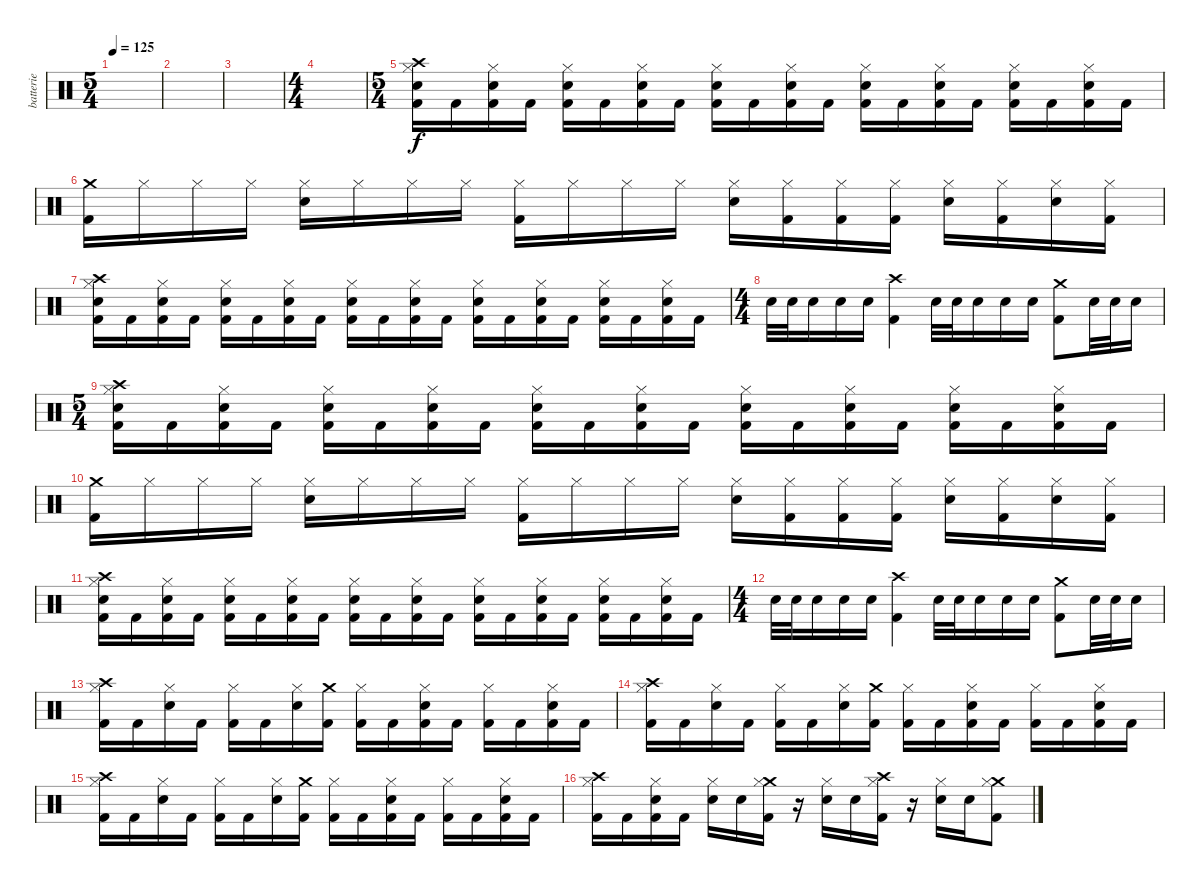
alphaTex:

\track ("batterie" "batterie") {instrument percussion}
\staff {score}
\articulation defaults
\ts (5 4)
\tempo 125
\clef neutral
\ks c
|
|
|
\ts (4 4)
|
\ts (5 4)
("Crash high (hit)" "Electric Snare (hit)" "Kick (hit) 2" "Hi-Hat (closed)").16 "Kick (hit) 2".16 ("Electric Snare (hit)" "Kick (hit) 2" "Hi-Hat (closed)").16 "Kick (hit) 2".16 ("Electric Snare (hit)" "Kick (hit) 2" "Hi-Hat (closed)").16 "Kick (hit) 2".16 ("Electric Snare (hit)" "Kick (hit) 2" "Hi-Hat (closed)").16 "Kick (hit) 2".16 ("Electric Snare (hit)" "Kick (hit) 2" "Hi-Hat (closed)").16 "Kick (hit) 2".16 ("Electric Snare (hit)" "Kick (hit) 2" "Hi-Hat (closed)").16 "Kick (hit) 2".16 ("Electric Snare (hit)" "Kick (hit) 2" "Hi-Hat (closed)").16 "Kick (hit) 2".16 ("Electric Snare (hit)" "Kick (hit) 2" "Hi-Hat (closed)").16 "Kick (hit) 2".16 ("Electric Snare (hit)" "Kick (hit) 2" "Hi-Hat (closed)").16 "Kick (hit) 2".16 ("Electric Snare (hit)" "Kick (hit) 2" "Hi-Hat (closed)").16 "Kick (hit) 2".16 |
("Crash medium (hit)" "Kick (hit) 2").16 "Hi-Hat (closed)".16 "Hi-Hat (closed)".16 "Hi-Hat (closed)".16 ("Electric Snare (hit)" "Hi-Hat (closed)").16 "Hi-Hat (closed)".16 "Hi-Hat (closed)".16 "Hi-Hat (closed)".16 ("Kick (hit) 2" "Hi-Hat (closed)").16 "Hi-Hat (closed)".16 "Hi-Hat (closed)".16 "Hi-Hat (closed)".16 ("Electric Snare (hit)" "Hi-Hat (closed)").16 ("Kick (hit) 2" "Hi-Hat (closed)").16 ("Kick (hit) 2" "Hi-Hat (closed)").16 ("Kick (hit) 2" "Hi-Hat (closed)").16 ("Electric Snare (hit)" "Hi-Hat (closed)").16 ("Kick (hit) 2" "Hi-Hat (closed)").16 ("Electric Snare (hit)" "Hi-Hat (closed)").16 ("Kick (hit) 2" "Hi-Hat (closed)").16 |
("Crash high (hit)" "Electric Snare (hit)" "Kick (hit) 2" "Hi-Hat (closed)").16 "Kick (hit) 2".16 ("Electric Snare (hit)" "Kick (hit) 2" "Hi-Hat (closed)").16 "Kick (hit) 2".16 ("Electric Snare (hit)" "Kick (hit) 2" "Hi-Hat (closed)").16 "Kick (hit) 2".16 ("Electric Snare (hit)" "Kick (hit) 2" "Hi-Hat (closed)").16 "Kick (hit) 2".16 ("Electric Snare (hit)" "Kick (hit) 2" "Hi-Hat (closed)").16 "Kick (hit) 2".16 ("Electric Snare (hit)" "Kick (hit) 2" "Hi-Hat (closed)").16 "Kick (hit) 2".16 ("Electric Snare (hit)" "Kick (hit) 2" "Hi-Hat (closed)").16 "Kick (hit) 2".16 ("Electric Snare (hit)" "Kick (hit) 2" "Hi-Hat (closed)").16 "Kick (hit) 2".16 ("Electric Snare (hit)" "Kick (hit) 2" "Hi-Hat (closed)").16 "Kick (hit) 2".16 ("Electric Snare (hit)" "Kick (hit) 2" "Hi-Hat (closed)").16 "Kick (hit) 2".16 |
\ts (4 4)
"Electric Snare (hit)".32 "Electric Snare (hit)".32 "Electric Snare (hit)".16 "Electric Snare (hit)".16 "Electric Snare (hit)".16 ("Crash high (hit)" "Kick (hit) 2").4 "Electric Snare (hit)".32 "Electric Snare (hit)".32 "Electric Snare (hit)".16 "Electric Snare (hit)".16 "Electric Snare (hit)".16 ("Crash medium (hit)" "Kick (hit) 2").8 "Electric Snare (hit)".32 "Electric Snare (hit)".32 "Electric Snare (hit)".16 |
\ts (5 4)
("Crash high (hit)" "Electric Snare (hit)" "Kick (hit) 2" "Hi-Hat (closed)").16 "Kick (hit) 2".16 ("Electric Snare (hit)" "Kick (hit) 2" "Hi-Hat (closed)").16 "Kick (hit) 2".16 ("Electric Snare (hit)" "Kick (hit) 2" "Hi-Hat (closed)").16 "Kick (hit) 2".16 ("Electric Snare (hit)" "Kick (hit) 2" "Hi-Hat (closed)").16 "Kick (hit) 2".16 ("Electric Snare (hit)" "Kick (hit) 2" "Hi-Hat (closed)").16 "Kick (hit) 2".16 ("Electric Snare (hit)" "Kick (hit) 2" "Hi-Hat (closed)").16 "Kick (hit) 2".16 ("Electric Snare (hit)" "Kick (hit) 2" "Hi-Hat (closed)").16 "Kick (hit) 2".16 ("Electric Snare (hit)" "Kick (hit) 2" "Hi-Hat (closed)").16 "Kick (hit) 2".16 ("Electric Snare (hit)" "Kick (hit) 2" "Hi-Hat (closed)").16 "Kick (hit) 2".16 ("Electric Snare (hit)" "Kick (hit) 2" "Hi-Hat (closed)").16 "Kick (hit) 2".16 |
("Crash medium (hit)" "Kick (hit) 2").16 "Hi-Hat (closed)".16 "Hi-Hat (closed)".16 "Hi-Hat (closed)".16 ("Electric Snare (hit)" "Hi-Hat (closed)").16 "Hi-Hat (closed)".16 "Hi-Hat (closed)".16 "Hi-Hat (closed)".16 ("Kick (hit) 2" "Hi-Hat (closed)").16 "Hi-Hat (closed)".16 "Hi-Hat (closed)".16 "Hi-Hat (closed)".16 ("Electric Snare (hit)" "Hi-Hat (closed)").16 ("Kick (hit) 2" "Hi-Hat (closed)").16 ("Kick (hit) 2" "Hi-Hat (closed)").16 ("Kick (hit) 2" "Hi-Hat (closed)").16 ("Electric Snare (hit)" "Hi-Hat (closed)").16 ("Kick (hit) 2" "Hi-Hat (closed)").16 ("Electric Snare (hit)" "Hi-Hat (closed)").16 ("Kick (hit) 2" "Hi-Hat (closed)").16 |
("Crash high (hit)" "Electric Snare (hit)" "Kick (hit) 2" "Hi-Hat (closed)").16 "Kick (hit) 2".16 ("Electric Snare (hit)" "Kick (hit) 2" "Hi-Hat (closed)").16 "Kick (hit) 2".16 ("Electric Snare (hit)" "Kick (hit) 2" "Hi-Hat (closed)").16 "Kick (hit) 2".16 ("Electric Snare (hit)" "Kick (hit) 2" "Hi-Hat (closed)").16 "Kick (hit) 2".16 ("Electric Snare (hit)" "Kick (hit) 2" "Hi-Hat (closed)").16 "Kick (hit) 2".16 ("Electric Snare (hit)" "Kick (hit) 2" "Hi-Hat (closed)").16 "Kick (hit) 2".16 ("Electric Snare (hit)" "Kick (hit) 2" "Hi-Hat (closed)").16 "Kick (hit) 2".16 ("Electric Snare (hit)" "Kick (hit) 2" "Hi-Hat (closed)").16 "Kick (hit) 2".16 ("Electric Snare (hit)" "Kick (hit) 2" "Hi-Hat (closed)").16 "Kick (hit) 2".16 ("Electric Snare (hit)" "Kick (hit) 2" "Hi-Hat (closed)").16 "Kick (hit) 2".16 |
\ts (4 4)
"Electric Snare (hit)".32 "Electric Snare (hit)".32 "Electric Snare (hit)".16 "Electric Snare (hit)".16 "Electric Snare (hit)".16 ("Crash high (hit)" "Kick (hit) 2").4 "Electric Snare (hit)".32 "Electric Snare (hit)".32 "Electric Snare (hit)".16 "Electric Snare (hit)".16 "Electric Snare (hit)".16 ("Crash medium (hit)" "Kick (hit) 2").8 "Electric Snare (hit)".32 "Electric Snare (hit)".32 "Electric Snare (hit)".16 |
("Crash high (hit)" "Kick (hit) 2" "Hi-Hat (closed)").16 "Kick (hit) 2".16 ("Electric Snare (hit)" "Hi-Hat (closed)").16 "Kick (hit) 2".16 ("Kick (hit) 2" "Hi-Hat (closed)").16 "Kick (hit) 2".16 ("Electric Snare (hit)" "Hi-Hat (closed)").16 ("Crash medium (hit)" "Kick (hit) 2").16 ("Kick (hit) 2" "Hi-Hat (closed)").16 "Kick (hit) 2".16 ("Electric Snare (hit)" "Kick (hit) 2" "Hi-Hat (closed)").16 "Kick (hit) 2".16 ("Kick (hit) 2" "Hi-Hat (closed)").16 "Kick (hit) 2".16 ("Electric Snare (hit)" "Kick (hit) 2" "Hi-Hat (closed)").16 "Kick (hit) 2".16 |
("Crash high (hit)" "Kick (hit) 2" "Hi-Hat (closed)").16 "Kick (hit) 2".16 ("Electric Snare (hit)" "Hi-Hat (closed)").16 "Kick (hit) 2".16 ("Kick (hit) 2" "Hi-Hat (closed)").16 "Kick (hit) 2".16 ("Electric Snare (hit)" "Hi-Hat (closed)").16 ("Crash medium (hit)" "Kick (hit) 2").16 ("Kick (hit) 2" "Hi-Hat (closed)").16 "Kick (hit) 2".16 ("Electric Snare (hit)" "Kick (hit) 2" "Hi-Hat (closed)").16 "Kick (hit) 2".16 ("Kick (hit) 2" "Hi-Hat (closed)").16 "Kick (hit) 2".16 ("Electric Snare (hit)" "Kick (hit) 2" "Hi-Hat (closed)").16 "Kick (hit) 2".16 |
("Crash high (hit)" "Kick (hit) 2" "Hi-Hat (closed)").16 "Kick (hit) 2".16 ("Electric Snare (hit)" "Hi-Hat (closed)").16 "Kick (hit) 2".16 ("Kick (hit) 2" "Hi-Hat (closed)").16 "Kick (hit) 2".16 ("Electric Snare (hit)" "Hi-Hat (closed)").16 ("Crash medium (hit)" "Kick (hit) 2").16 ("Kick (hit) 2" "Hi-Hat (closed)").16 "Kick (hit) 2".16 ("Electric Snare (hit)" "Kick (hit) 2" "Hi-Hat (closed)").16 "Kick (hit) 2".16 ("Kick (hit) 2" "Hi-Hat (closed)").16 "Kick (hit) 2".16 ("Electric Snare (hit)" "Kick (hit) 2" "Hi-Hat (closed)").16 "Kick (hit) 2".16 |
("Crash high (hit)" "Kick (hit) 2" "Hi-Hat (closed)").16 "Kick (hit) 2".16 ("Electric Snare (hit)" "Kick (hit) 2" "Hi-Hat (closed)").16 "Kick (hit) 2".16 ("Electric Snare (hit)" "Hi-Hat (closed)").16 "Electric Snare (hit)".16 ("Crash medium (hit)" "Kick (hit) 2" "Hi-Hat (closed)").16 r.16 ("Electric Snare (hit)" "Hi-Hat (closed)").16 "Electric Snare (hit)".16 ("Crash high (hit)" "Kick (hit) 2" "Hi-Hat (closed)").16 r.16 ("Electric Snare (hit)" "Hi-Hat (closed)").16 "Electric Snare (hit)".16 ("Crash medium (hit)" "Kick (hit) 2" "Hi-Hat (closed)").8
